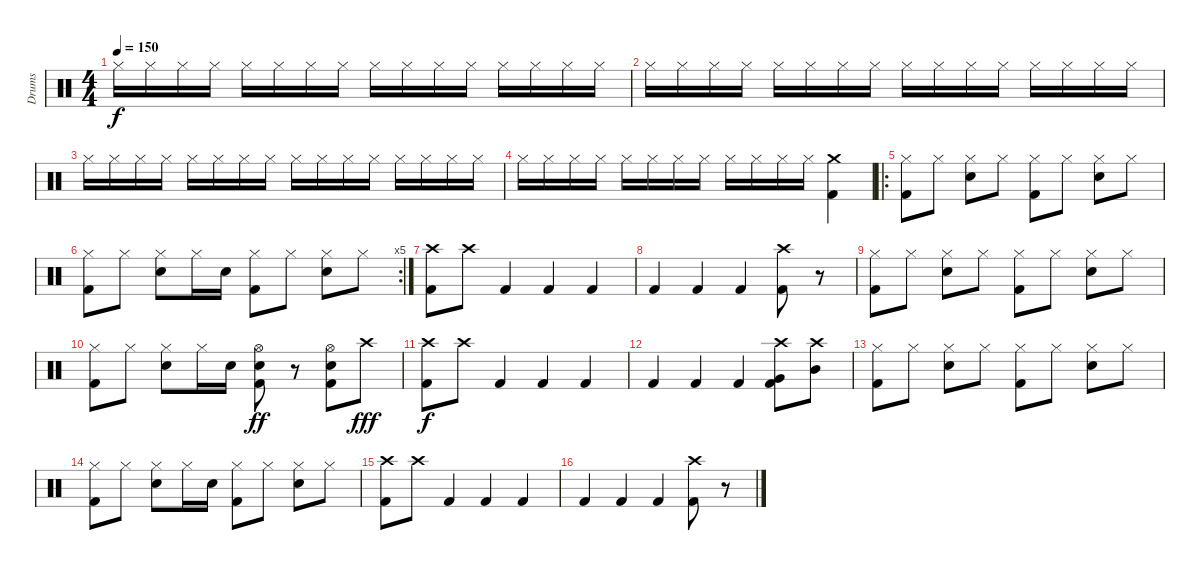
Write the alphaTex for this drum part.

\track ("Drums" "Drums") {instrument percussion}
\staff {score}
\articulation defaults
\ts (4 4)
\tempo 150
\clef neutral
\ks c "Hi-Hat (closed)".16{dy f balance 16} "Hi-Hat (closed)".16 "Hi-Hat (closed)".16 "Hi-Hat (closed)".16 "Hi-Hat (closed)".16 "Hi-Hat (closed)".16 "Hi-Hat (closed)".16 "Hi-Hat (closed)".16 "Hi-Hat (closed)".16 "Hi-Hat (closed)".16 "Hi-Hat (closed)".16 "Hi-Hat (closed)".16 "Hi-Hat (closed)".16 "Hi-Hat (closed)".16 "Hi-Hat (closed)".16 "Hi-Hat (closed)".16
|
"Hi-Hat (closed)".16{balance 0} "Hi-Hat (closed)".16 "Hi-Hat (closed)".16 "Hi-Hat (closed)".16 "Hi-Hat (closed)".16 "Hi-Hat (closed)".16 "Hi-Hat (closed)".16 "Hi-Hat (closed)".16 "Hi-Hat (closed)".16 "Hi-Hat (closed)".16 "Hi-Hat (closed)".16 "Hi-Hat (closed)".16 "Hi-Hat (closed)".16 "Hi-Hat (closed)".16 "Hi-Hat (closed)".16 "Hi-Hat (closed)".16 |
"Hi-Hat (closed)".16{balance 16} "Hi-Hat (closed)".16 "Hi-Hat (closed)".16 "Hi-Hat (closed)".16 "Hi-Hat (closed)".16 "Hi-Hat (closed)".16 "Hi-Hat (closed)".16 "Hi-Hat (closed)".16 "Hi-Hat (closed)".16 "Hi-Hat (closed)".16 "Hi-Hat (closed)".16 "Hi-Hat (closed)".16 "Hi-Hat (closed)".16 "Hi-Hat (closed)".16 "Hi-Hat (closed)".16 "Hi-Hat (closed)".16 |
"Hi-Hat (closed)".16{balance 0} "Hi-Hat (closed)".16 "Hi-Hat (closed)".16 "Hi-Hat (closed)".16 "Hi-Hat (closed)".16 "Hi-Hat (closed)".16 "Hi-Hat (closed)".16 "Hi-Hat (closed)".16 "Hi-Hat (closed)".16 "Hi-Hat (closed)".16 "Hi-Hat (closed)".16 "Hi-Hat (closed)".16 ("Crash medium (hit)" "Kick (hit) 2").4{volume 13 balance 8} |
\ro
("Hi-Hat (closed)" "Kick (hit) 2").8{volume 13 balance 8} "Hi-Hat (closed)".8 ("Hi-Hat (closed)" "Snare (hit) 2").8 "Hi-Hat (closed)".8 ("Hi-Hat (closed)" "Kick (hit) 2").8 "Hi-Hat (closed)".8 ("Hi-Hat (closed)" "Snare (hit) 2").8 "Hi-Hat (closed)".8 |
\rc 5
("Hi-Hat (closed)" "Kick (hit) 2").8 "Hi-Hat (closed)".8 ("Hi-Hat (closed)" "Snare (hit) 2").8 "Hi-Hat (closed)".16 "Snare (hit) 2".16 ("Hi-Hat (closed)" "Kick (hit) 2").8 "Hi-Hat (closed)".8 ("Hi-Hat (closed)" "Snare (hit) 2").8 "Hi-Hat (closed)".8 |
("Crash high (hit)" "Kick (hit) 2").8 "Crash high (hit)".8 "Kick (hit) 2".4 "Kick (hit) 2".4 "Kick (hit) 2".4 |
"Kick (hit) 2".4 "Kick (hit) 2".4 "Kick (hit) 2".4 ("Crash high (hit)" "Kick (hit) 2").8 r.8 |
("Hi-Hat (closed)" "Kick (hit) 2").8 "Hi-Hat (closed)".8 ("Hi-Hat (closed)" "Snare (hit) 2").8 "Hi-Hat (closed)".8 ("Hi-Hat (closed)" "Kick (hit) 2").8 "Hi-Hat (closed)".8 ("Hi-Hat (closed)" "Snare (hit) 2").8 "Hi-Hat (closed)".8 |
("Hi-Hat (closed)" "Kick (hit) 2").8 "Hi-Hat (closed)".8 ("Hi-Hat (closed)" "Snare (hit) 2").8 "Hi-Hat (closed)".16 "Snare (hit) 2".16 ("Hi-Hat (open)" "Snare (hit) 2" "Kick (hit) 2").8{dy ff} r.8 ("Hi-Hat (open)" "Snare (hit) 2" "Kick (hit) 2").8 "Crash high (hit)".8{dy fff} |
("Crash high (hit)" "Kick (hit) 2").8{dy f} "Crash high (hit)".8 "Kick (hit) 2".4 "Kick (hit) 2".4 "Kick (hit) 2".4 |
"Kick (hit) 2".4 "Kick (hit) 2".4 "Kick (hit) 2".4 ("Crash high (hit)" "Very Low Tom (hit)" "Kick (hit) 2").8 ("Crash high (hit)" "Mid Tom (hit)").8 |
("Hi-Hat (closed)" "Kick (hit) 2").8 "Hi-Hat (closed)".8 ("Hi-Hat (closed)" "Snare (hit) 2").8 "Hi-Hat (closed)".8 ("Hi-Hat (closed)" "Kick (hit) 2").8 "Hi-Hat (closed)".8 ("Hi-Hat (closed)" "Snare (hit) 2").8 "Hi-Hat (closed)".8 |
("Hi-Hat (closed)" "Kick (hit) 2").8 "Hi-Hat (closed)".8 ("Hi-Hat (closed)" "Snare (hit) 2").8 "Hi-Hat (closed)".16 "Snare (hit) 2".16 ("Hi-Hat (closed)" "Kick (hit) 2").8 "Hi-Hat (closed)".8 ("Hi-Hat (closed)" "Snare (hit) 2").8 "Hi-Hat (closed)".8 |
("Crash high (hit)" "Kick (hit) 2").8 "Crash high (hit)".8 "Kick (hit) 2".4 "Kick (hit) 2".4 "Kick (hit) 2".4 |
"Kick (hit) 2".4 "Kick (hit) 2".4 "Kick (hit) 2".4 ("Crash high (hit)" "Kick (hit) 2").8 r.8
